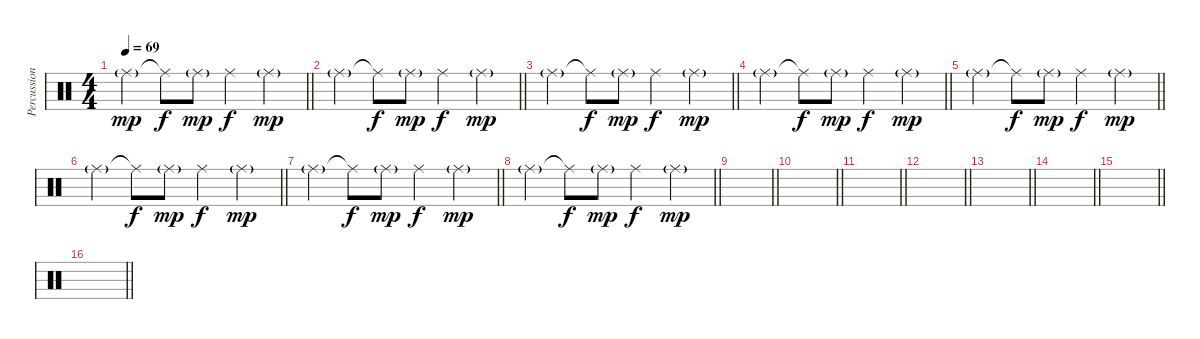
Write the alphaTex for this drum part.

\track ("Percussions" "Percussion") {instrument percussion}
\staff {score}
\articulation defaults
\ts (4 4)
\tempo 69
\clef neutral
\barLineRight lightlight
\ks c "Ride (middle)"{g}.4{dy mp volume 8} "Ride (middle)"{t}.8{dy f} "Ride (middle)"{g}.8{dy mp} "Ride (middle)".4{dy f} "Ride (middle)"{g}.4{dy mp}
|
\barLineRight lightlight "Ride (middle)"{g}.4 "Ride (middle)"{t}.8{dy f} "Ride (middle)"{g}.8{dy mp} "Ride (middle)".4{dy f} "Ride (middle)"{g}.4{dy mp}
|
\barLineRight lightlight "Ride (middle)"{g}.4 "Ride (middle)"{t}.8{dy f} "Ride (middle)"{g}.8{dy mp} "Ride (middle)".4{dy f} "Ride (middle)"{g}.4{dy mp}
|
\barLineRight lightlight "Ride (middle)"{g}.4 "Ride (middle)"{t}.8{dy f} "Ride (middle)"{g}.8{dy mp} "Ride (middle)".4{dy f} "Ride (middle)"{g}.4{dy mp}
|
\barLineRight lightlight "Ride (middle)"{g}.4 "Ride (middle)"{t}.8{dy f} "Ride (middle)"{g}.8{dy mp} "Ride (middle)".4{dy f} "Ride (middle)"{g}.4{dy mp}
|
\barLineRight lightlight "Ride (middle)"{g}.4 "Ride (middle)"{t}.8{dy f} "Ride (middle)"{g}.8{dy mp} "Ride (middle)".4{dy f} "Ride (middle)"{g}.4{dy mp}
|
\barLineRight lightlight "Ride (middle)"{g}.4 "Ride (middle)"{t}.8{dy f} "Ride (middle)"{g}.8{dy mp} "Ride (middle)".4{dy f} "Ride (middle)"{g}.4{dy mp}
|
\barLineRight lightlight "Ride (middle)"{g}.4 "Ride (middle)"{t}.8{dy f} "Ride (middle)"{g}.8{dy mp} "Ride (middle)".4{dy f} "Ride (middle)"{g}.4{dy mp}
|
\barLineRight lightlight
|
\barLineRight lightlight
|
\barLineRight lightlight
|
\barLineRight lightlight
|
\barLineRight lightlight
|
\barLineRight lightlight
|
\barLineRight lightlight
|
\barLineRight lightlight
